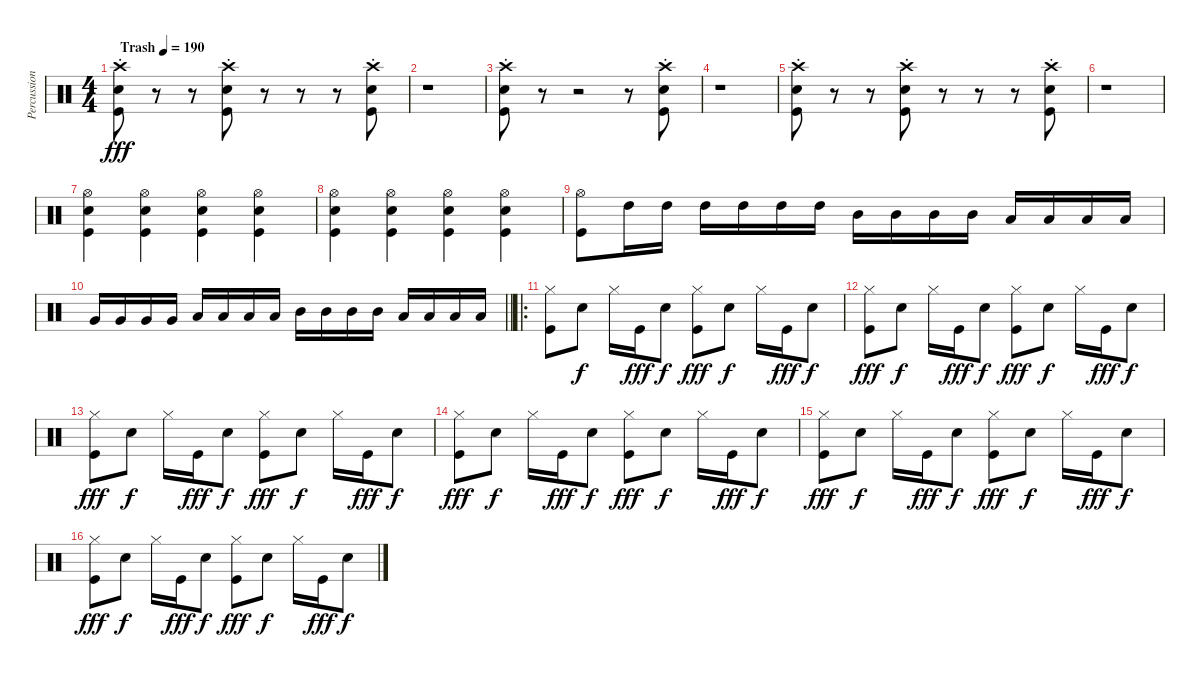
\track ("Percussioni" "Percussion") {instrument percussion}
\staff {score}
\articulation defaults
\ts (4 4)
\tempo (190 "Trash")
\clef neutral
\ks c
("Snare (hit) 2"{st} "Kick (hit)"{st} "Crash high (hit)"{st}).8{dy fff} r.8 r.8 ("Snare (hit) 2"{st} "Kick (hit)"{st} "Crash high (hit)"{st}).8 r.8 r.8 r.8 ("Snare (hit) 2"{st} "Kick (hit)"{st} "Crash high (hit)"{st}).8 |
r.1 |
("Snare (hit) 2"{st} "Kick (hit)"{st} "Crash high (hit)"{st}).8 r.8 r.2 r.8 ("Snare (hit) 2"{st} "Kick (hit)"{st} "Crash high (hit)"{st}).8 |
r.1 |
("Snare (hit) 2"{st} "Kick (hit)"{st} "Crash high (hit)"{st}).8 r.8 r.8 ("Snare (hit) 2"{st} "Kick (hit)"{st} "Crash high (hit)"{st}).8 r.8 r.8 r.8 ("Snare (hit) 2"{st} "Kick (hit)"{st} "Crash high (hit)"{st}).8 |
r.1 |
("Kick (hit)" "Snare (hit) 2" "Hi-Hat (open)").4 ("Kick (hit)" "Snare (hit) 2" "Hi-Hat (open)").4 ("Kick (hit)" "Snare (hit) 2" "Hi-Hat (open)").4 ("Kick (hit)" "Snare (hit) 2" "Hi-Hat (open)").4 |
("Kick (hit)" "Snare (hit) 2" "Hi-Hat (open)").4 ("Kick (hit)" "Snare (hit) 2" "Hi-Hat (open)").4 ("Kick (hit)" "Snare (hit) 2" "Hi-Hat (open)").4 ("Kick (hit)" "Snare (hit) 2" "Hi-Hat (open)").4 |
("Kick (hit)" "Hi-Hat (open)").8 "High Tom (hit)".16 "High Tom (hit)".16 "High Tom (hit)".16 "High Tom (hit)".16 "High Tom (hit)".16 "High Tom (hit)".16 "Mid Tom (hit)".16 "Mid Tom (hit)".16 "Mid Tom (hit)".16 "Mid Tom (hit)".16 "Low Tom (hit)".16 "Low Tom (hit)".16 "Low Tom (hit)".16 "Low Tom (hit)".16 |
\barLineRight lightlight "Very Low Tom (hit)".16 "Very Low Tom (hit)".16 "Very Low Tom (hit)".16 "Very Low Tom (hit)".16 "Low Tom (hit)".16 "Low Tom (hit)".16 "Low Tom (hit)".16 "Low Tom (hit)".16 "Mid Tom (hit)".16 "Mid Tom (hit)".16 "Mid Tom (hit)".16 "Mid Tom (hit)".16 "Low Tom (hit)".16 "Low Tom (hit)".16 "Low Tom (hit)".16 "Low Tom (hit)".16
|
\ro
("Kick (hit)" "Hi-Hat (closed)").8 "Snare (hit) 2".8{dy f} "Hi-Hat (closed)".16 "Kick (hit)".16{dy fff} "Snare (hit) 2".8{dy f} ("Kick (hit)" "Hi-Hat (closed)").8{dy fff} "Snare (hit) 2".8{dy f} "Hi-Hat (closed)".16 "Kick (hit)".16{dy fff} "Snare (hit) 2".8{dy f} |
("Kick (hit)" "Hi-Hat (closed)").8{dy fff} "Snare (hit) 2".8{dy f} "Hi-Hat (closed)".16 "Kick (hit)".16{dy fff} "Snare (hit) 2".8{dy f} ("Kick (hit)" "Hi-Hat (closed)").8{dy fff} "Snare (hit) 2".8{dy f} "Hi-Hat (closed)".16 "Kick (hit)".16{dy fff} "Snare (hit) 2".8{dy f} |
("Kick (hit)" "Hi-Hat (closed)").8{dy fff} "Snare (hit) 2".8{dy f} "Hi-Hat (closed)".16 "Kick (hit)".16{dy fff} "Snare (hit) 2".8{dy f} ("Kick (hit)" "Hi-Hat (closed)").8{dy fff} "Snare (hit) 2".8{dy f} "Hi-Hat (closed)".16 "Kick (hit)".16{dy fff} "Snare (hit) 2".8{dy f} |
("Kick (hit)" "Hi-Hat (closed)").8{dy fff} "Snare (hit) 2".8{dy f} "Hi-Hat (closed)".16 "Kick (hit)".16{dy fff} "Snare (hit) 2".8{dy f} ("Kick (hit)" "Hi-Hat (closed)").8{dy fff} "Snare (hit) 2".8{dy f} "Hi-Hat (closed)".16 "Kick (hit)".16{dy fff} "Snare (hit) 2".8{dy f} |
("Kick (hit)" "Hi-Hat (closed)").8{dy fff} "Snare (hit) 2".8{dy f} "Hi-Hat (closed)".16 "Kick (hit)".16{dy fff} "Snare (hit) 2".8{dy f} ("Kick (hit)" "Hi-Hat (closed)").8{dy fff} "Snare (hit) 2".8{dy f} "Hi-Hat (closed)".16 "Kick (hit)".16{dy fff} "Snare (hit) 2".8{dy f} |
("Kick (hit)" "Hi-Hat (closed)").8{dy fff} "Snare (hit) 2".8{dy f} "Hi-Hat (closed)".16 "Kick (hit)".16{dy fff} "Snare (hit) 2".8{dy f} ("Kick (hit)" "Hi-Hat (closed)").8{dy fff} "Snare (hit) 2".8{dy f} "Hi-Hat (closed)".16 "Kick (hit)".16{dy fff} "Snare (hit) 2".8{dy f}
